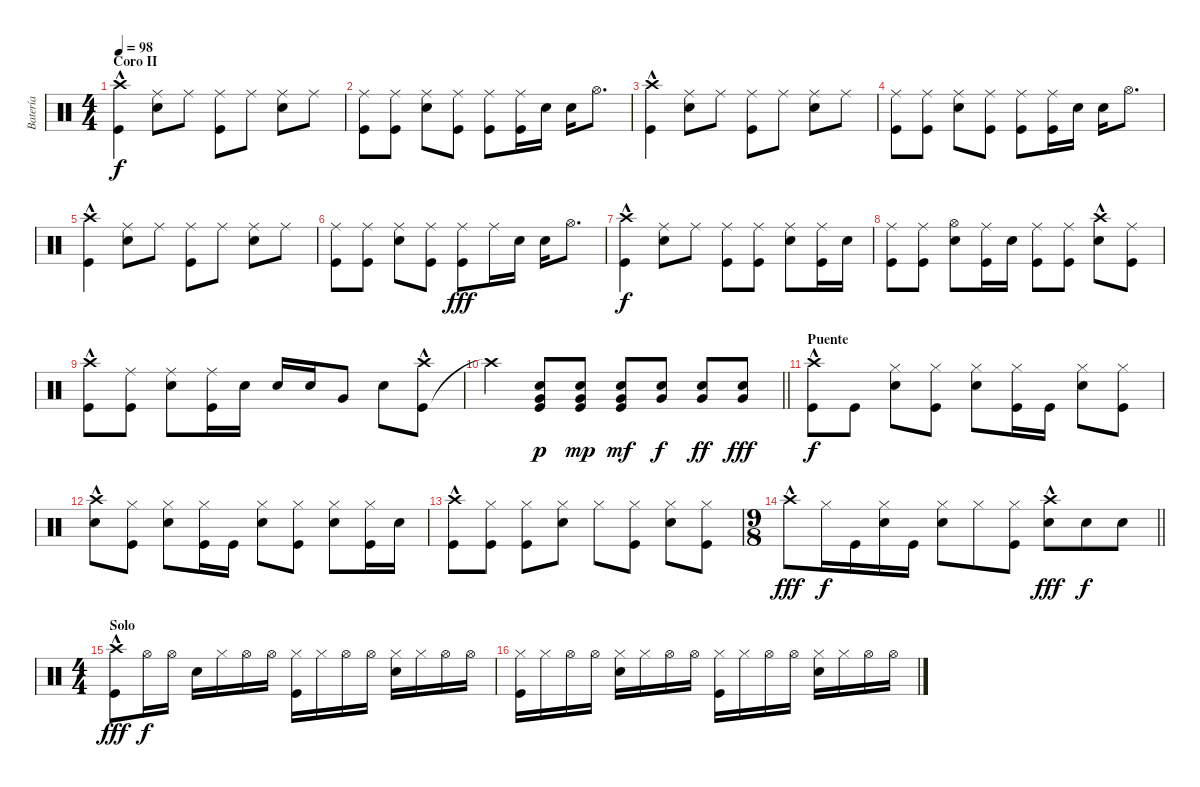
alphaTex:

\track ("Batería" "Batería") {instrument percussion}
\staff {score}
\articulation defaults
\ts (4 4)
\section ("" "Coro II")
\tempo 98
\clef neutral
\ks aminor
("Kick (hit)" "Crash high (hit)"{hac}).4{dy f} ("Ride (middle)" "Snare (hit) 2").8 "Ride (middle)".8 ("Ride (middle)" "Kick (hit)").8 "Ride (middle)".8 ("Ride (middle)" "Snare (hit) 2").8 "Ride (middle)".8 |
("Ride (middle)" "Kick (hit)").8 ("Ride (middle)" "Kick (hit)").8 ("Ride (middle)" "Snare (hit) 2").8 ("Ride (middle)" "Kick (hit)").8 ("Ride (middle)" "Kick (hit)").8 ("Ride (middle)" "Kick (hit)").16 "Snare (hit) 2".16 "Snare (hit) 2".16 "Hi-Hat (open)".8{d} |
("Kick (hit)" "Crash high (hit)"{hac}).4 ("Ride (middle)" "Snare (hit) 2").8 "Ride (middle)".8 ("Ride (middle)" "Kick (hit)").8 "Ride (middle)".8 ("Ride (middle)" "Snare (hit) 2").8 "Ride (middle)".8 |
("Ride (middle)" "Kick (hit)").8 ("Ride (middle)" "Kick (hit)").8 ("Ride (middle)" "Snare (hit) 2").8 ("Ride (middle)" "Kick (hit)").8 ("Ride (middle)" "Kick (hit)").8 ("Ride (middle)" "Kick (hit)").16 "Snare (hit) 2".16 "Snare (hit) 2".16 "Hi-Hat (open)".8{d} |
("Kick (hit)" "Crash high (hit)"{hac}).4 ("Ride (middle)" "Snare (hit) 2").8 "Ride (middle)".8 ("Ride (middle)" "Kick (hit)").8 "Ride (middle)".8 ("Ride (middle)" "Snare (hit) 2").8 "Ride (middle)".8 |
("Ride (middle)" "Kick (hit)").8 ("Ride (middle)" "Kick (hit)").8 ("Ride (middle)" "Snare (hit) 2").8 ("Ride (middle)" "Kick (hit)").8 ("Ride (middle)" "Kick (hit)").8{dy fff} "Ride (middle)".16 "Snare (hit) 2".16 "Snare (hit) 2".16 "Hi-Hat (open)".8{d} |
("Kick (hit)" "Crash high (hit)"{hac}).4{dy f} ("Ride (middle)" "Snare (hit) 2").8 "Ride (middle)".8 ("Ride (middle)" "Kick (hit)").8 ("Ride (middle)" "Kick (hit)").8 ("Ride (middle)" "Snare (hit) 2").8 ("Ride (middle)" "Kick (hit)").16 "Snare (hit) 2".16 |
("Kick (hit)" "Ride (middle)").8 ("Kick (hit)" "Ride (middle)").8 ("Snare (hit) 2" "Hi-Hat (open)").8 ("Kick (hit)" "Ride (middle)").16 "Snare (hit) 2".16 ("Kick (hit)" "Ride (middle)").8 ("Kick (hit)" "Ride (middle)").8 ("Snare (hit) 2" "Crash high (hit)"{hac}).8 ("Kick (hit)" "Ride (middle)").8 |
("Kick (hit)" "Crash high (hit)"{hac}).8 ("Kick (hit)" "Ride (middle)").8 ("Snare (hit) 2" "Ride (middle)").8 ("Kick (hit)" "Ride (middle)").16 "Snare (hit) 2".16 "Snare (hit) 2".16 "Snare (hit) 2".16 "Very Low Tom (hit)".8 "Snare (hit) 2".8 ("Kick (hit)" "Crash high (hit)"{hac}).8 |
\barLineRight lightlight "Crash high (hit)"{t}.4
("Snare (hit) 2" "Very Low Tom (hit)" "Kick (hit)").8{dy p} ("Snare (hit) 2" "Very Low Tom (hit)" "Kick (hit)").8{dy mp} ("Snare (hit) 2" "Very Low Tom (hit)" "Kick (hit)").8{dy mf} ("Snare (hit) 2" "Very Low Tom (hit)").8{dy f} ("Snare (hit) 2" "Very Low Tom (hit)").8{dy ff} ("Snare (hit) 2" "Very Low Tom (hit)").8{dy fff} |
\section ("" "Puente")
("Kick (hit)" "Crash high (hit)"{hac}).8{dy f} "Kick (hit)".8 ("Snare (hit) 2" "Hi-Hat (closed)").8 ("Kick (hit)" "Hi-Hat (closed)").8 ("Snare (hit) 2" "Hi-Hat (closed)").8 ("Kick (hit)" "Hi-Hat (closed)").16 "Kick (hit)".16 ("Snare (hit) 2" "Hi-Hat (closed)").8 ("Kick (hit)" "Hi-Hat (closed)").8 |
("Snare (hit) 2" "Crash high (hit)"{hac}).8 ("Kick (hit)" "Hi-Hat (closed)").8 ("Snare (hit) 2" "Hi-Hat (closed)").8 ("Kick (hit)" "Hi-Hat (closed)").16 "Kick (hit)".16 ("Snare (hit) 2" "Hi-Hat (closed)").8 ("Kick (hit)" "Hi-Hat (closed)").8 ("Snare (hit) 2" "Hi-Hat (closed)").8 ("Kick (hit)" "Hi-Hat (closed)").16 "Snare (hit) 2".16 |
("Kick (hit)" "Crash high (hit)"{hac}).8 ("Kick (hit)" "Hi-Hat (closed)").8 ("Kick (hit)" "Hi-Hat (closed)").8 ("Snare (hit) 2" "Hi-Hat (closed)").8 "Hi-Hat (closed)".8 ("Hi-Hat (closed)" "Kick (hit)").8 ("Hi-Hat (closed)" "Snare (hit) 2").8 ("Hi-Hat (closed)" "Kick (hit)").8 |
\ts (9 8)
\barLineRight lightlight "Crash high (hit)"{hac}.8{dy fff} "Hi-Hat (closed)".16{dy f} "Kick (hit)".16
("Snare (hit) 2" "Hi-Hat (closed)").16 "Kick (hit)".16 ("Hi-Hat (closed)" "Snare (hit) 2").8 "Hi-Hat (closed)".8 ("Hi-Hat (closed)" "Kick (hit)").8 ("Crash high (hit)"{hac} "Snare (hit) 2").8{dy fff} "Snare (hit) 2".8{dy f} "Snare (hit) 2".8 |
\ts (4 4)
\section ("" "Solo")
("Crash high (hit)"{hac} "Kick (hit)").8{dy fff} "Hi-Hat (open)".16{dy f} "Hi-Hat (open)".16 "Snare (hit) 2".16 "Hi-Hat (closed)".16 "Hi-Hat (open)".16 "Hi-Hat (open)".16 ("Kick (hit)" "Hi-Hat (closed)").16 "Hi-Hat (closed)".16 "Hi-Hat (open)".16 "Hi-Hat (open)".16 ("Snare (hit) 2" "Hi-Hat (closed)").16 "Hi-Hat (closed)".16 "Hi-Hat (open)".16 "Hi-Hat (open)".16 |
("Kick (hit)" "Hi-Hat (closed)").16 "Hi-Hat (closed)".16 "Hi-Hat (open)".16 "Hi-Hat (open)".16 ("Snare (hit) 2" "Hi-Hat (closed)").16 "Hi-Hat (closed)".16 "Hi-Hat (open)".16 "Hi-Hat (open)".16 ("Kick (hit)" "Hi-Hat (closed)").16 "Hi-Hat (closed)".16 "Hi-Hat (open)".16 "Hi-Hat (open)".16 ("Snare (hit) 2" "Hi-Hat (closed)").16 "Hi-Hat (closed)".16 "Hi-Hat (open)".16 "Hi-Hat (open)".16
